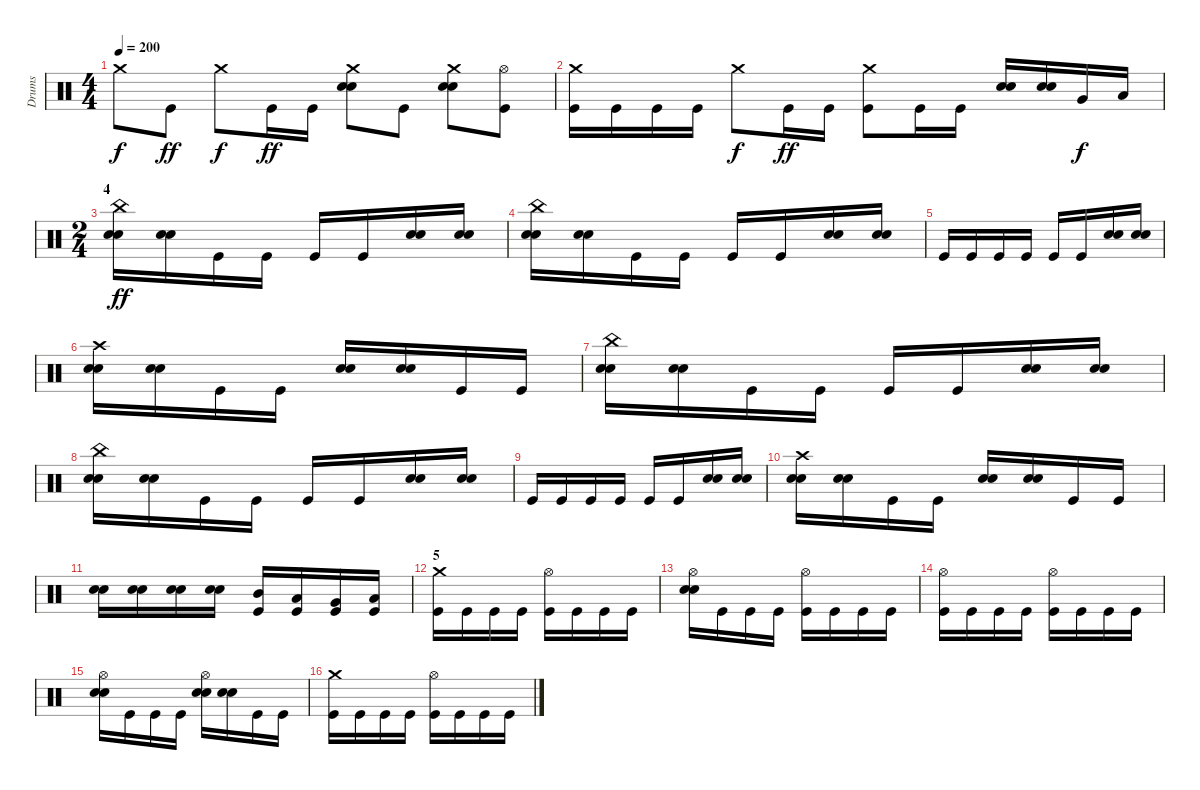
\track ("Drums" "Drums") {instrument percussion}
\staff {score}
\articulation defaults
\ts (4 4)
\tempo 200
\clef neutral
\ks c "Crash medium (hit)".8{dy f} "Kick (hit)".8{dy ff} "Crash medium (hit)".8{dy f} "Kick (hit)".16{dy ff} "Kick (hit)".16
("Electric Snare (hit)" "Electric Snare (hit)" "Crash medium (hit)").8 "Kick (hit)".8 ("Electric Snare (hit)" "Electric Snare (hit)" "Crash medium (hit)").8 ("Kick (hit)" "Hi-Hat (open)").8 |
("Kick (hit)" "Crash medium (hit)").16 "Kick (hit)".16 "Kick (hit)".16 "Kick (hit)".16 "Crash medium (hit)".8{dy f} "Kick (hit)".16{dy ff} "Kick (hit)".16 ("Kick (hit)" "Crash medium (hit)").8 "Kick (hit)".16 "Kick (hit)".16 ("Electric Snare (hit)" "Electric Snare (hit)").16 ("Electric Snare (hit)" "Electric Snare (hit)").16 "Very Low Tom (hit)".16{dy f} "Low Floor Tom (hit)".16 |
\ts (2 4)
\section ("" "4")
("Electric Snare (hit)" "Electric Snare (hit)" "China (hit)").16{dy ff} ("Electric Snare (hit)" "Electric Snare (hit)").16 "Kick (hit)".16 "Kick (hit)".16 "Kick (hit)".16 "Kick (hit)".16 ("Electric Snare (hit)" "Electric Snare (hit)").16 ("Electric Snare (hit)" "Electric Snare (hit)").16 |
("Electric Snare (hit)" "Electric Snare (hit)" "China (hit)").16 ("Electric Snare (hit)" "Electric Snare (hit)").16 "Kick (hit)".16 "Kick (hit)".16 "Kick (hit)".16 "Kick (hit)".16 ("Electric Snare (hit)" "Electric Snare (hit)").16 ("Electric Snare (hit)" "Electric Snare (hit)").16 |
"Kick (hit)".16 "Kick (hit)".16 "Kick (hit)".16 "Kick (hit)".16 "Kick (hit)".16 "Kick (hit)".16 ("Electric Snare (hit)" "Electric Snare (hit)").16 ("Electric Snare (hit)" "Electric Snare (hit)").16 |
("Electric Snare (hit)" "Electric Snare (hit)" "Crash high (hit)").16 ("Electric Snare (hit)" "Electric Snare (hit)").16 "Kick (hit)".16 "Kick (hit)".16 ("Electric Snare (hit)" "Electric Snare (hit)").16 ("Electric Snare (hit)" "Electric Snare (hit)").16 "Kick (hit)".16 "Kick (hit)".16 |
("Electric Snare (hit)" "Electric Snare (hit)" "China (hit)").16 ("Electric Snare (hit)" "Electric Snare (hit)").16 "Kick (hit)".16 "Kick (hit)".16 "Kick (hit)".16 "Kick (hit)".16 ("Electric Snare (hit)" "Electric Snare (hit)").16 ("Electric Snare (hit)" "Electric Snare (hit)").16 |
("Electric Snare (hit)" "Electric Snare (hit)" "China (hit)").16 ("Electric Snare (hit)" "Electric Snare (hit)").16 "Kick (hit)".16 "Kick (hit)".16 "Kick (hit)".16 "Kick (hit)".16 ("Electric Snare (hit)" "Electric Snare (hit)").16 ("Electric Snare (hit)" "Electric Snare (hit)").16 |
"Kick (hit)".16 "Kick (hit)".16 "Kick (hit)".16 "Kick (hit)".16 "Kick (hit)".16 "Kick (hit)".16 ("Electric Snare (hit)" "Electric Snare (hit)").16 ("Electric Snare (hit)" "Electric Snare (hit)").16 |
("Electric Snare (hit)" "Electric Snare (hit)" "Crash high (hit)").16 ("Electric Snare (hit)" "Electric Snare (hit)").16 "Kick (hit)".16 "Kick (hit)".16 ("Electric Snare (hit)" "Electric Snare (hit)").16 ("Electric Snare (hit)" "Electric Snare (hit)").16 "Kick (hit)".16 "Kick (hit)".16 |
("Electric Snare (hit)" "Electric Snare (hit)").16 ("Electric Snare (hit)" "Electric Snare (hit)").16 ("Electric Snare (hit)" "Electric Snare (hit)").16 ("Electric Snare (hit)" "Electric Snare (hit)").16 ("Kick (hit)" "Mid Tom (hit)").16 ("Kick (hit)" "Low Tom (hit)").16 ("Kick (hit)" "Very Low Tom (hit)").16 ("Kick (hit)" "Low Floor Tom (hit)").16 |
\section ("" "5")
("Kick (hit)" "Crash medium (hit)").16 "Kick (hit)".16 "Kick (hit)".16 "Kick (hit)".16 ("Kick (hit)" "Hi-Hat (open)").16 "Kick (hit)".16 "Kick (hit)".16 "Kick (hit)".16 |
("Electric Snare (hit)" "Electric Snare (hit)" "Hi-Hat (open)").16 "Kick (hit)".16 "Kick (hit)".16 "Kick (hit)".16 ("Kick (hit)" "Hi-Hat (open)").16 "Kick (hit)".16 "Kick (hit)".16 "Kick (hit)".16 |
("Kick (hit)" "Hi-Hat (open)").16 "Kick (hit)".16 "Kick (hit)".16 "Kick (hit)".16 ("Kick (hit)" "Hi-Hat (open)").16 "Kick (hit)".16 "Kick (hit)".16 "Kick (hit)".16 |
("Electric Snare (hit)" "Electric Snare (hit)" "Hi-Hat (open)").16 "Kick (hit)".16 "Kick (hit)".16 "Kick (hit)".16 ("Electric Snare (hit)" "Electric Snare (hit)" "Hi-Hat (open)").16 ("Electric Snare (hit)" "Electric Snare (hit)").16 "Kick (hit)".16 "Kick (hit)".16 |
("Kick (hit)" "Crash medium (hit)").16 "Kick (hit)".16 "Kick (hit)".16 "Kick (hit)".16 ("Kick (hit)" "Hi-Hat (open)").16 "Kick (hit)".16 "Kick (hit)".16 "Kick (hit)".16
